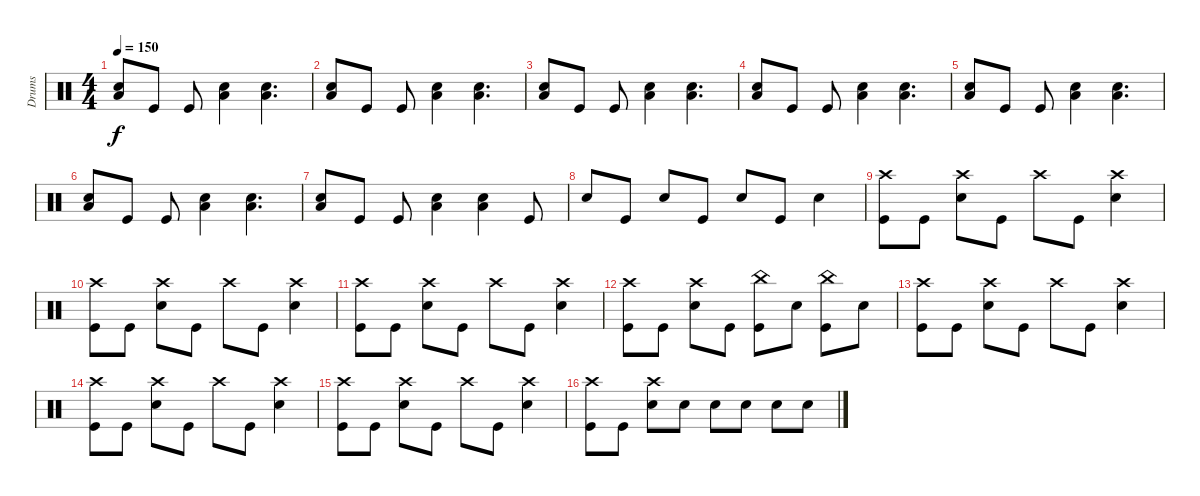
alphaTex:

\track ("Drums" "Drums") {instrument percussion}
\staff {score}
\articulation defaults
\ts (4 4)
\tempo 150
\clef neutral
\ks c
("Snare (hit) 2" "Low Floor Tom (hit)").8{dy f} "Kick (hit)".8 "Kick (hit)".8 ("Snare (hit) 2" "Low Floor Tom (hit)").4 ("Snare (hit) 2" "Low Floor Tom (hit)").4{d} |
("Snare (hit) 2" "Low Floor Tom (hit)").8 "Kick (hit)".8 "Kick (hit)".8 ("Snare (hit) 2" "Low Floor Tom (hit)").4 ("Snare (hit) 2" "Low Floor Tom (hit)").4{d} |
("Snare (hit) 2" "Low Floor Tom (hit)").8 "Kick (hit)".8 "Kick (hit)".8 ("Snare (hit) 2" "Low Floor Tom (hit)").4 ("Snare (hit) 2" "Low Floor Tom (hit)").4{d} |
("Snare (hit) 2" "Low Floor Tom (hit)").8 "Kick (hit)".8 "Kick (hit)".8 ("Snare (hit) 2" "Low Floor Tom (hit)").4 ("Snare (hit) 2" "Low Floor Tom (hit)").4{d} |
("Snare (hit) 2" "Low Floor Tom (hit)").8 "Kick (hit)".8 "Kick (hit)".8 ("Snare (hit) 2" "Low Floor Tom (hit)").4 ("Snare (hit) 2" "Low Floor Tom (hit)").4{d} |
("Snare (hit) 2" "Low Floor Tom (hit)").8 "Kick (hit)".8 "Kick (hit)".8 ("Snare (hit) 2" "Low Floor Tom (hit)").4 ("Snare (hit) 2" "Low Floor Tom (hit)").4{d} |
("Snare (hit) 2" "Low Floor Tom (hit)").8 "Kick (hit)".8 "Kick (hit)".8 ("Snare (hit) 2" "Low Floor Tom (hit)").4 ("Snare (hit) 2" "Low Floor Tom (hit)").4 "Kick (hit)".8 |
"Snare (hit) 2".8 "Kick (hit)".8 "Snare (hit) 2".8 "Kick (hit)".8 "Snare (hit) 2".8 "Kick (hit)".8 "Snare (hit) 2".4 |
("Kick (hit)" "Crash high (hit)").8 "Kick (hit)".8 ("Snare (hit) 2" "Crash high (hit)").8 "Kick (hit)".8 "Crash high (hit)".8 "Kick (hit)".8 ("Snare (hit) 2" "Crash high (hit)").4 |
("Kick (hit)" "Crash high (hit)").8 "Kick (hit)".8 ("Snare (hit) 2" "Crash high (hit)").8 "Kick (hit)".8 "Crash high (hit)".8 "Kick (hit)".8 ("Snare (hit) 2" "Crash high (hit)").4 |
("Kick (hit)" "Crash high (hit)").8 "Kick (hit)".8 ("Snare (hit) 2" "Crash high (hit)").8 "Kick (hit)".8 "Crash high (hit)".8 "Kick (hit)".8 ("Snare (hit) 2" "Crash high (hit)").4 |
("Kick (hit)" "Crash high (hit)").8 "Kick (hit)".8 ("Snare (hit) 2" "Crash high (hit)").8 "Kick (hit)".8 ("China (hit)" "Kick (hit)").8 "Snare (hit) 2".8 ("Kick (hit)" "China (hit)").8 "Snare (hit) 2".8 |
("Kick (hit)" "Crash high (hit)").8 "Kick (hit)".8 ("Snare (hit) 2" "Crash high (hit)").8 "Kick (hit)".8 "Crash high (hit)".8 "Kick (hit)".8 ("Snare (hit) 2" "Crash high (hit)").4 |
("Kick (hit)" "Crash high (hit)").8 "Kick (hit)".8 ("Snare (hit) 2" "Crash high (hit)").8 "Kick (hit)".8 "Crash high (hit)".8 "Kick (hit)".8 ("Snare (hit) 2" "Crash high (hit)").4 |
("Kick (hit)" "Crash high (hit)").8 "Kick (hit)".8 ("Snare (hit) 2" "Crash high (hit)").8 "Kick (hit)".8 "Crash high (hit)".8 "Kick (hit)".8 ("Snare (hit) 2" "Crash high (hit)").4 |
("Kick (hit)" "Crash high (hit)").8 "Kick (hit)".8 ("Snare (hit) 2" "Crash high (hit)").8 "Snare (hit) 2".8 "Snare (hit) 2".8 "Snare (hit) 2".8 "Snare (hit) 2".8 "Snare (hit) 2".8
